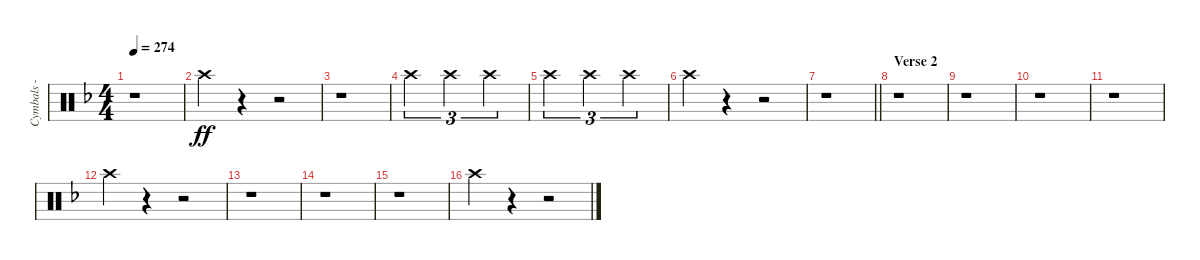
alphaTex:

\track ("Cymbals - crash" "Cymbals - ") {instrument percussion}
\staff {score}
\articulation defaults
\ts (4 4)
\tempo 274
\clef neutral
\ks dminor
r.1{dy ff} |
"Crash high (hit)".4 r.4 r.2 |
r.1 |
"Crash high (hit)".2{tu (3 2)} "Crash high (hit)".2{tu (3 2)} "Crash high (hit)".2{tu (3 2)} |
"Crash high (hit)".2{tu (3 2)} "Crash high (hit)".2{tu (3 2)} "Crash high (hit)".2{tu (3 2)} |
"Crash high (hit)".4 r.4 r.2 |
\barLineRight lightlight
r.1 |
\section ("" "Verse 2")
r.1 |
r.1 |
r.1 |
r.1 |
"Crash high (hit)".4 r.4 r.2 |
r.1 |
r.1 |
r.1 |
"Crash high (hit)".4 r.4 r.2
